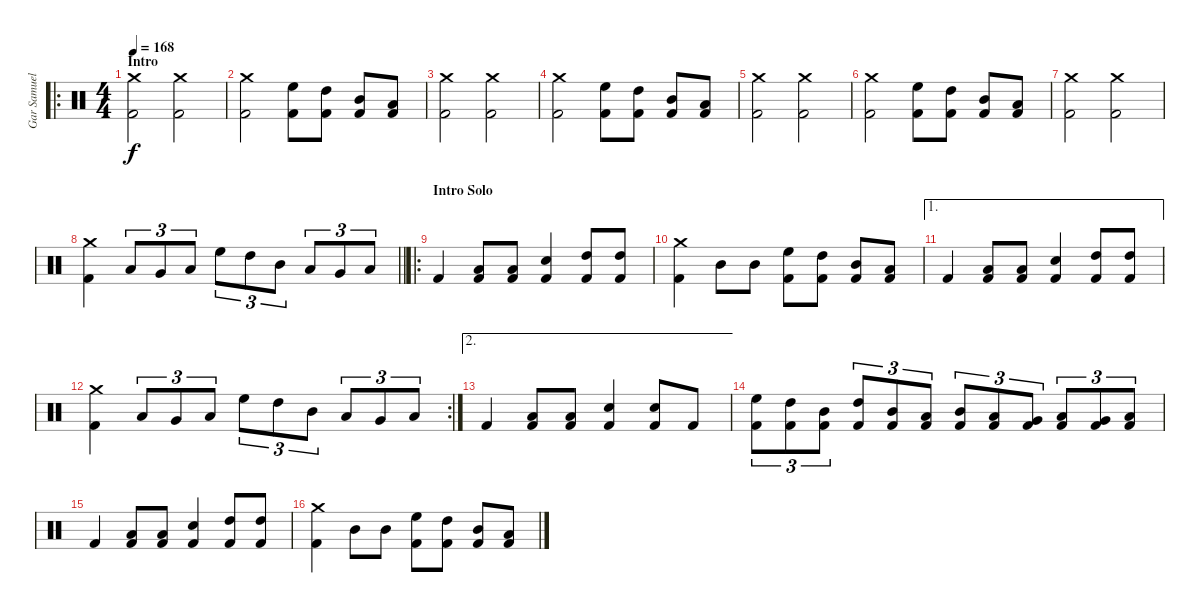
\track ("Gar Samuelson" "Gar Samuel") {instrument percussion}
\staff {score}
\articulation defaults
\ro
\ts (4 4)
\section ("" "Intro")
\tempo 168
\tempo 150
\tempo 168
\clef neutral
\ks c
("Crash medium (hit)" "Kick (hit) 2").2{dy f} ("Crash medium (hit)" "Kick (hit) 2").2 |
("Crash medium (hit)" "Kick (hit) 2").2 ("High Floor Tom (hit)" "Kick (hit) 2").8 ("High Tom (hit)" "Kick (hit) 2").8 ("Mid Tom (hit)" "Kick (hit) 2").8 ("Low Tom (hit)" "Kick (hit) 2").8 |
("Crash medium (hit)" "Kick (hit) 2").2 ("Crash medium (hit)" "Kick (hit) 2").2 |
("Crash medium (hit)" "Kick (hit) 2").2 ("High Floor Tom (hit)" "Kick (hit) 2").8 ("High Tom (hit)" "Kick (hit) 2").8 ("Mid Tom (hit)" "Kick (hit) 2").8 ("Low Tom (hit)" "Kick (hit) 2").8 |
("Crash medium (hit)" "Kick (hit) 2").2 ("Crash medium (hit)" "Kick (hit) 2").2 |
("Crash medium (hit)" "Kick (hit) 2").2 ("High Floor Tom (hit)" "Kick (hit) 2").8 ("High Tom (hit)" "Kick (hit) 2").8 ("Mid Tom (hit)" "Kick (hit) 2").8 ("Low Tom (hit)" "Kick (hit) 2").8 |
("Crash medium (hit)" "Kick (hit) 2").2 ("Crash medium (hit)" "Kick (hit) 2").2 |
\barLineRight lightlight
("Crash medium (hit)" "Kick (hit) 2").4 "Low Tom (hit)".8{tu (3 2)} "Very Low Tom (hit)".8{tu (3 2)} "Low Floor Tom (hit)".8{tu (3 2)} "High Floor Tom (hit)".8{tu (3 2)} "High Tom (hit)".8{tu (3 2)} "Mid Tom (hit)".8{tu (3 2)} "Low Tom (hit)".8{tu (3 2)} "Very Low Tom (hit)".8{tu (3 2)} "Low Floor Tom (hit)".8{tu (3 2)} |
\ro
\section ("" "Intro Solo")
"Kick (hit) 2".4 ("Low Tom (hit)" "Kick (hit) 2").8 ("Low Tom (hit)" "Kick (hit) 2").8 ("Snare (hit) 2" "Kick (hit) 2").4 ("High Tom (hit)" "Kick (hit) 2").8 ("High Tom (hit)" "Kick (hit) 2").8 |
("Crash medium (hit)" "Kick (hit) 2").4 "Mid Tom (hit)".8 "Mid Tom (hit)".8 ("High Floor Tom (hit)" "Kick (hit) 2").8 ("High Tom (hit)" "Kick (hit) 2").8 ("Mid Tom (hit)" "Kick (hit) 2").8 ("Low Tom (hit)" "Kick (hit) 2").8 |
\ae 1 "Kick (hit) 2".4
("Low Tom (hit)" "Kick (hit) 2").8 ("Low Tom (hit)" "Kick (hit) 2").8 ("Snare (hit) 2" "Kick (hit) 2").4 ("High Tom (hit)" "Kick (hit) 2").8 ("High Tom (hit)" "Kick (hit) 2").8 |
\rc 2
("Crash medium (hit)" "Kick (hit) 2").4 "Low Tom (hit)".8{tu (3 2)} "Very Low Tom (hit)".8{tu (3 2)} "Low Floor Tom (hit)".8{tu (3 2)} "High Floor Tom (hit)".8{tu (3 2)} "High Tom (hit)".8{tu (3 2)} "Mid Tom (hit)".8{tu (3 2)} "Low Tom (hit)".8{tu (3 2)} "Very Low Tom (hit)".8{tu (3 2)} "Low Floor Tom (hit)".8{tu (3 2)} |
\ae 2 "Kick (hit) 2".4
("Low Tom (hit)" "Kick (hit) 2").8 ("Low Tom (hit)" "Kick (hit) 2").8 ("Snare (hit) 2" "Kick (hit) 2").4 ("Snare (hit) 2" "Kick (hit) 2").8 "Kick (hit) 2".8 |
("High Floor Tom (hit)" "Kick (hit) 2").8{tu (3 2)} ("High Tom (hit)" "Kick (hit) 2").8{tu (3 2)} ("Mid Tom (hit)" "Kick (hit) 2").8{tu (3 2)} ("High Tom (hit)" "Kick (hit) 2").8{tu (3 2)} ("Mid Tom (hit)" "Kick (hit) 2").8{tu (3 2)} ("Low Tom (hit)" "Kick (hit) 2").8{tu (3 2)} ("Mid Tom (hit)" "Kick (hit) 2").8{tu (3 2)} ("Low Tom (hit)" "Kick (hit) 2").8{tu (3 2)} ("Very Low Tom (hit)" "Kick (hit) 2").8{tu (3 2)} ("Low Tom (hit)" "Kick (hit) 2").8{tu (3 2)} ("Very Low Tom (hit)" "Kick (hit) 2").8{tu (3 2)} ("Low Floor Tom (hit)" "Kick (hit) 2").8{tu (3 2)} |
"Kick (hit) 2".4 ("Low Tom (hit)" "Kick (hit) 2").8 ("Low Tom (hit)" "Kick (hit) 2").8 ("Snare (hit) 2" "Kick (hit) 2").4 ("High Tom (hit)" "Kick (hit) 2").8 ("High Tom (hit)" "Kick (hit) 2").8 |
("Crash medium (hit)" "Kick (hit) 2").4 "Mid Tom (hit)".8 "Mid Tom (hit)".8 ("High Floor Tom (hit)" "Kick (hit) 2").8 ("High Tom (hit)" "Kick (hit) 2").8 ("Mid Tom (hit)" "Kick (hit) 2").8 ("Low Tom (hit)" "Kick (hit) 2").8
